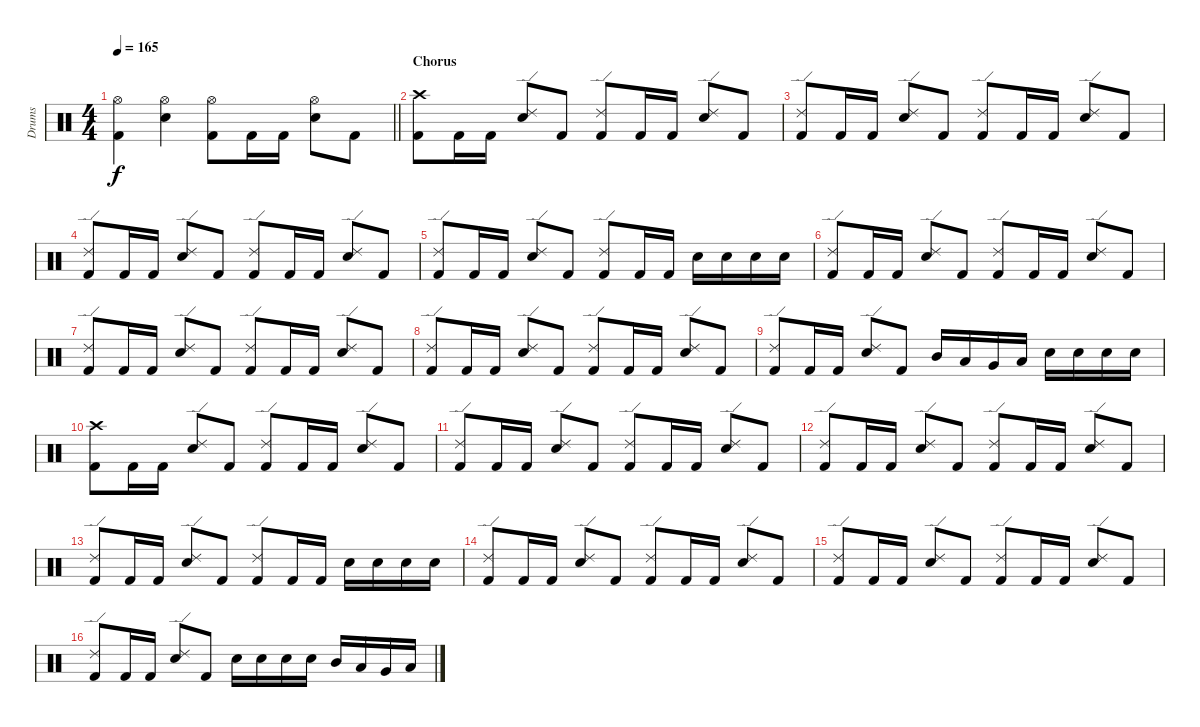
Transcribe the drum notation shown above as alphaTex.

\track ("Drums" "Drums") {instrument percussion}
\staff {score}
\articulation defaults
\ts (4 4)
\tempo 165
\clef neutral
\barLineRight lightlight
\ks c
("Hi-Hat (open)" "Kick (hit) 2").4{dy f} ("Hi-Hat (open)" "Snare (hit) 2").4 ("Hi-Hat (open)" "Kick (hit) 2").8 "Kick (hit) 2".16 "Kick (hit) 2".16 ("Hi-Hat (open)" "Snare (hit) 2").8 "Kick (hit) 2".8 |
\section ("" "Chorus")
("Crash high (hit)" "Kick (hit) 2").8 "Kick (hit) 2".16 "Kick (hit) 2".16 ("Ride (edge) 2" "Snare (hit) 2").8 "Kick (hit) 2".8 ("Ride (edge) 2" "Kick (hit) 2").8 "Kick (hit) 2".16 "Kick (hit) 2".16 ("Ride (edge) 2" "Snare (hit) 2").8 "Kick (hit) 2".8 |
("Ride (edge) 2" "Kick (hit) 2").8 "Kick (hit) 2".16 "Kick (hit) 2".16 ("Ride (edge) 2" "Snare (hit) 2").8 "Kick (hit) 2".8 ("Ride (edge) 2" "Kick (hit) 2").8 "Kick (hit) 2".16 "Kick (hit) 2".16 ("Ride (edge) 2" "Snare (hit) 2").8 "Kick (hit) 2".8 |
("Ride (edge) 2" "Kick (hit) 2").8 "Kick (hit) 2".16 "Kick (hit) 2".16 ("Ride (edge) 2" "Snare (hit) 2").8 "Kick (hit) 2".8 ("Ride (edge) 2" "Kick (hit) 2").8 "Kick (hit) 2".16 "Kick (hit) 2".16 ("Ride (edge) 2" "Snare (hit) 2").8 "Kick (hit) 2".8 |
("Ride (edge) 2" "Kick (hit) 2").8 "Kick (hit) 2".16 "Kick (hit) 2".16 ("Ride (edge) 2" "Snare (hit) 2").8 "Kick (hit) 2".8 ("Ride (edge) 2" "Kick (hit) 2").8 "Kick (hit) 2".16 "Kick (hit) 2".16 "Snare (hit) 2".16 "Snare (hit) 2".16 "Snare (hit) 2".16 "Snare (hit) 2".16 |
("Ride (edge) 2" "Kick (hit) 2").8 "Kick (hit) 2".16 "Kick (hit) 2".16 ("Ride (edge) 2" "Snare (hit) 2").8 "Kick (hit) 2".8 ("Ride (edge) 2" "Kick (hit) 2").8 "Kick (hit) 2".16 "Kick (hit) 2".16 ("Ride (edge) 2" "Snare (hit) 2").8 "Kick (hit) 2".8 |
("Ride (edge) 2" "Kick (hit) 2").8 "Kick (hit) 2".16 "Kick (hit) 2".16 ("Ride (edge) 2" "Snare (hit) 2").8 "Kick (hit) 2".8 ("Ride (edge) 2" "Kick (hit) 2").8 "Kick (hit) 2".16 "Kick (hit) 2".16 ("Ride (edge) 2" "Snare (hit) 2").8 "Kick (hit) 2".8 |
("Ride (edge) 2" "Kick (hit) 2").8 "Kick (hit) 2".16 "Kick (hit) 2".16 ("Ride (edge) 2" "Snare (hit) 2").8 "Kick (hit) 2".8 ("Ride (edge) 2" "Kick (hit) 2").8 "Kick (hit) 2".16 "Kick (hit) 2".16 ("Ride (edge) 2" "Snare (hit) 2").8 "Kick (hit) 2".8 |
("Ride (edge) 2" "Kick (hit) 2").8 "Kick (hit) 2".16 "Kick (hit) 2".16 ("Ride (edge) 2" "Snare (hit) 2").8 "Kick (hit) 2".8 "Mid Tom (hit)".16 "Low Tom (hit)".16 "Very Low Tom (hit)".16 "Low Floor Tom (hit)".16 "Snare (hit) 2".16 "Snare (hit) 2".16 "Snare (hit) 2".16 "Snare (hit) 2".16 |
("Crash high (hit)" "Kick (hit) 2").8 "Kick (hit) 2".16 "Kick (hit) 2".16 ("Ride (edge) 2" "Snare (hit) 2").8 "Kick (hit) 2".8 ("Ride (edge) 2" "Kick (hit) 2").8 "Kick (hit) 2".16 "Kick (hit) 2".16 ("Ride (edge) 2" "Snare (hit) 2").8 "Kick (hit) 2".8 |
("Ride (edge) 2" "Kick (hit) 2").8 "Kick (hit) 2".16 "Kick (hit) 2".16 ("Ride (edge) 2" "Snare (hit) 2").8 "Kick (hit) 2".8 ("Ride (edge) 2" "Kick (hit) 2").8 "Kick (hit) 2".16 "Kick (hit) 2".16 ("Ride (edge) 2" "Snare (hit) 2").8 "Kick (hit) 2".8 |
("Ride (edge) 2" "Kick (hit) 2").8 "Kick (hit) 2".16 "Kick (hit) 2".16 ("Ride (edge) 2" "Snare (hit) 2").8 "Kick (hit) 2".8 ("Ride (edge) 2" "Kick (hit) 2").8 "Kick (hit) 2".16 "Kick (hit) 2".16 ("Ride (edge) 2" "Snare (hit) 2").8 "Kick (hit) 2".8 |
("Ride (edge) 2" "Kick (hit) 2").8 "Kick (hit) 2".16 "Kick (hit) 2".16 ("Ride (edge) 2" "Snare (hit) 2").8 "Kick (hit) 2".8 ("Ride (edge) 2" "Kick (hit) 2").8 "Kick (hit) 2".16 "Kick (hit) 2".16 "Snare (hit) 2".16 "Snare (hit) 2".16 "Snare (hit) 2".16 "Snare (hit) 2".16 |
("Ride (edge) 2" "Kick (hit) 2").8 "Kick (hit) 2".16 "Kick (hit) 2".16 ("Ride (edge) 2" "Snare (hit) 2").8 "Kick (hit) 2".8 ("Ride (edge) 2" "Kick (hit) 2").8 "Kick (hit) 2".16 "Kick (hit) 2".16 ("Ride (edge) 2" "Snare (hit) 2").8 "Kick (hit) 2".8 |
("Ride (edge) 2" "Kick (hit) 2").8 "Kick (hit) 2".16 "Kick (hit) 2".16 ("Ride (edge) 2" "Snare (hit) 2").8 "Kick (hit) 2".8 ("Ride (edge) 2" "Kick (hit) 2").8 "Kick (hit) 2".16 "Kick (hit) 2".16 ("Ride (edge) 2" "Snare (hit) 2").8 "Kick (hit) 2".8 |
("Ride (edge) 2" "Kick (hit) 2").8 "Kick (hit) 2".16 "Kick (hit) 2".16 ("Ride (edge) 2" "Snare (hit) 2").8 "Kick (hit) 2".8 "Snare (hit) 2".16 "Snare (hit) 2".16 "Snare (hit) 2".16 "Snare (hit) 2".16 "Mid Tom (hit)".16 "Low Tom (hit)".16 "Very Low Tom (hit)".16 "Low Floor Tom (hit)".16
